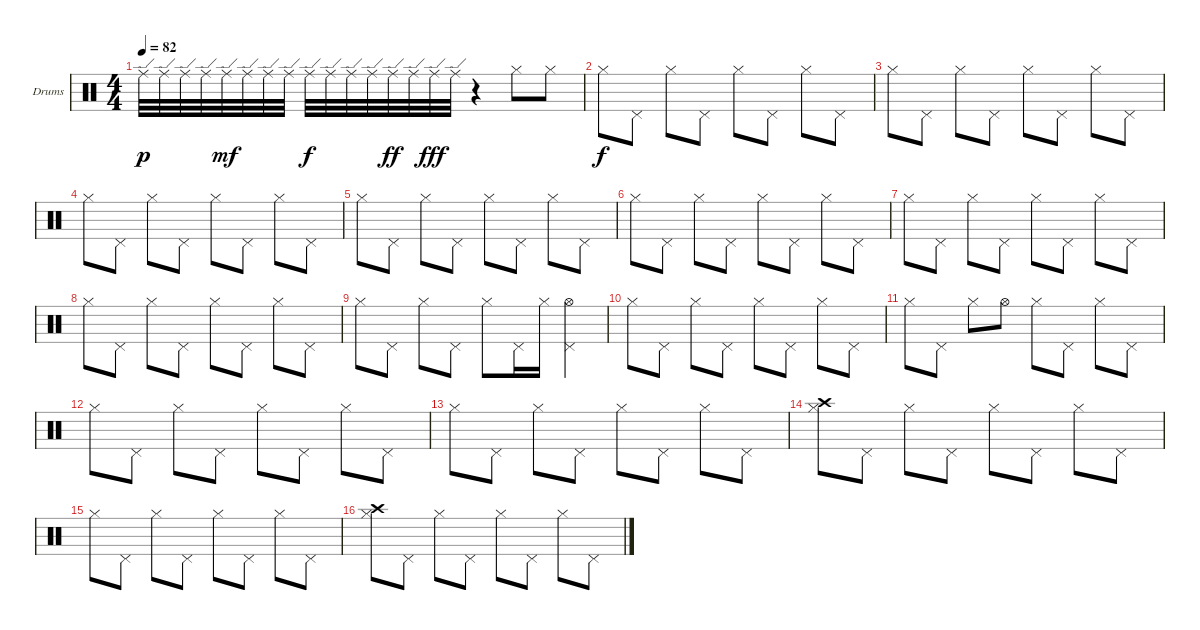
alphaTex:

\bracketExtendMode groupsimilarinstruments
\firstSystemTrackNameOrientation horizontal
\otherSystemsTrackNameOrientation horizontal
\track ("Drumkit" "Drums") {instrument percussion}
\staff {score}
\articulation defaults
\ts (4 4)
\tempo 82
\clef neutral
\ks c "Ride (edge)".32{dy p} "Ride (edge)".32 "Ride (edge)".32 "Ride (edge)".32 "Ride (edge)".32{dy mf} "Ride (edge)".32 "Ride (edge)".32 "Ride (edge)".32 "Ride (edge)".32{dy f} "Ride (edge)".32 "Ride (edge)".32 "Ride (edge)".32 "Ride (edge)".32{dy ff} "Ride (edge)".32 "Ride (edge)".32{dy fff} "Ride (edge)".32
r.4 "Hi-Hat (closed)".8 "Hi-Hat (closed)".8 |
"Hi-Hat (closed)".8{dy f} "Pedal Hi-Hat (hit)".8 "Hi-Hat (closed)".8 "Pedal Hi-Hat (hit)".8 "Hi-Hat (closed)".8 "Pedal Hi-Hat (hit)".8 "Hi-Hat (closed)".8 "Pedal Hi-Hat (hit)".8 |
"Hi-Hat (closed)".8 "Pedal Hi-Hat (hit)".8 "Hi-Hat (closed)".8 "Pedal Hi-Hat (hit)".8 "Hi-Hat (closed)".8 "Pedal Hi-Hat (hit)".8 "Hi-Hat (closed)".8 "Pedal Hi-Hat (hit)".8 |
"Hi-Hat (closed)".8 "Pedal Hi-Hat (hit)".8 "Hi-Hat (closed)".8 "Pedal Hi-Hat (hit)".8 "Hi-Hat (closed)".8 "Pedal Hi-Hat (hit)".8 "Hi-Hat (closed)".8 "Pedal Hi-Hat (hit)".8 |
"Hi-Hat (closed)".8 "Pedal Hi-Hat (hit)".8 "Hi-Hat (closed)".8 "Pedal Hi-Hat (hit)".8 "Hi-Hat (closed)".8 "Pedal Hi-Hat (hit)".8 "Hi-Hat (closed)".8 "Pedal Hi-Hat (hit)".8 |
"Hi-Hat (closed)".8 "Pedal Hi-Hat (hit)".8 "Hi-Hat (closed)".8 "Pedal Hi-Hat (hit)".8 "Hi-Hat (closed)".8 "Pedal Hi-Hat (hit)".8 "Hi-Hat (closed)".8 "Pedal Hi-Hat (hit)".8 |
"Hi-Hat (closed)".8 "Pedal Hi-Hat (hit)".8 "Hi-Hat (closed)".8 "Pedal Hi-Hat (hit)".8 "Hi-Hat (closed)".8 "Pedal Hi-Hat (hit)".8 "Hi-Hat (closed)".8 "Pedal Hi-Hat (hit)".8 |
"Hi-Hat (closed)".8 "Pedal Hi-Hat (hit)".8 "Hi-Hat (closed)".8 "Pedal Hi-Hat (hit)".8 "Hi-Hat (closed)".8 "Pedal Hi-Hat (hit)".8 "Hi-Hat (closed)".8 "Pedal Hi-Hat (hit)".8 |
"Hi-Hat (closed)".8 "Pedal Hi-Hat (hit)".8 "Hi-Hat (closed)".8 "Pedal Hi-Hat (hit)".8 "Hi-Hat (closed)".8 "Pedal Hi-Hat (hit)".16 "Hi-Hat (closed)".16 ("Pedal Hi-Hat (hit)" "Hi-Hat (open)").4 |
"Hi-Hat (closed)".8 "Pedal Hi-Hat (hit)".8 "Hi-Hat (closed)".8 "Pedal Hi-Hat (hit)".8 "Hi-Hat (closed)".8 "Pedal Hi-Hat (hit)".8 "Hi-Hat (closed)".8 "Pedal Hi-Hat (hit)".8 |
"Hi-Hat (closed)".8 "Pedal Hi-Hat (hit)".8 "Hi-Hat (closed)".8 "Hi-Hat (open)".8 "Hi-Hat (closed)".8 "Pedal Hi-Hat (hit)".8 "Hi-Hat (closed)".8 "Pedal Hi-Hat (hit)".8 |
"Hi-Hat (closed)".8 "Pedal Hi-Hat (hit)".8 "Hi-Hat (closed)".8 "Pedal Hi-Hat (hit)".8 "Hi-Hat (closed)".8 "Pedal Hi-Hat (hit)".8 "Hi-Hat (closed)".8 "Pedal Hi-Hat (hit)".8 |
"Hi-Hat (closed)".8 "Pedal Hi-Hat (hit)".8 "Hi-Hat (closed)".8 "Pedal Hi-Hat (hit)".8 "Hi-Hat (closed)".8 "Pedal Hi-Hat (hit)".8 "Hi-Hat (closed)".8 "Pedal Hi-Hat (hit)".8 |
("Hi-Hat (closed)" "Crash high (hit)").8 "Pedal Hi-Hat (hit)".8 "Hi-Hat (closed)".8 "Pedal Hi-Hat (hit)".8 "Hi-Hat (closed)".8 "Pedal Hi-Hat (hit)".8 "Hi-Hat (closed)".8 "Pedal Hi-Hat (hit)".8 |
"Hi-Hat (closed)".8 "Pedal Hi-Hat (hit)".8 "Hi-Hat (closed)".8 "Pedal Hi-Hat (hit)".8 "Hi-Hat (closed)".8 "Pedal Hi-Hat (hit)".8 "Hi-Hat (closed)".8 "Pedal Hi-Hat (hit)".8 |
("Hi-Hat (closed)" "Crash high (hit)").8 "Pedal Hi-Hat (hit)".8 "Hi-Hat (closed)".8 "Pedal Hi-Hat (hit)".8 "Hi-Hat (closed)".8 "Pedal Hi-Hat (hit)".8 "Hi-Hat (closed)".8 "Pedal Hi-Hat (hit)".8
